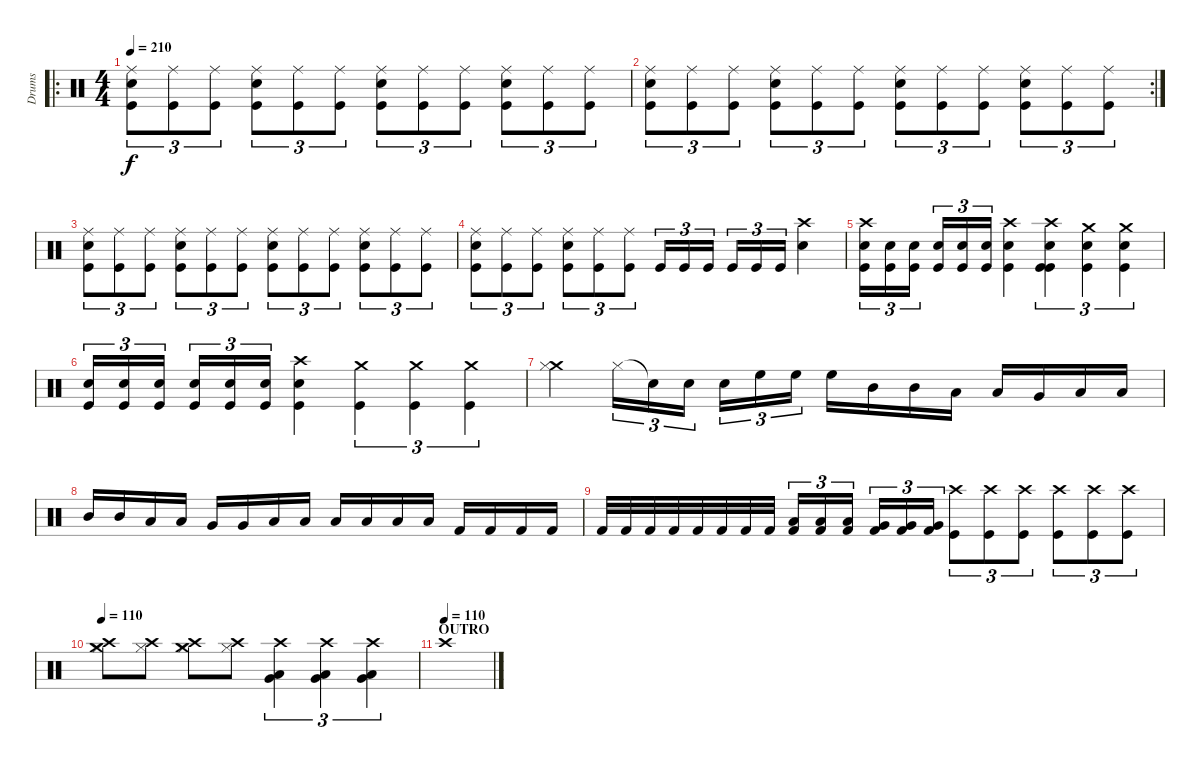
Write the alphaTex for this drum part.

\track ("Drums" "Drums") {instrument percussion}
\staff {score}
\articulation defaults
\ro
\ts (4 4)
\tempo 210
\clef neutral
\ks c
("Snare (hit) 2" "Ride (middle)" "Kick (hit)").8{tu (3 2) dy f} ("Ride (middle)" "Kick (hit)").8{tu (3 2)} ("Ride (middle)" "Kick (hit)").8{tu (3 2)} ("Snare (hit) 2" "Ride (middle)" "Kick (hit)").8{tu (3 2)} ("Ride (middle)" "Kick (hit)").8{tu (3 2)} ("Ride (middle)" "Kick (hit)").8{tu (3 2)} ("Snare (hit) 2" "Ride (middle)" "Kick (hit)").8{tu (3 2)} ("Ride (middle)" "Kick (hit)").8{tu (3 2)} ("Ride (middle)" "Kick (hit)").8{tu (3 2)} ("Snare (hit) 2" "Ride (middle)" "Kick (hit)").8{tu (3 2)} ("Ride (middle)" "Kick (hit)").8{tu (3 2)} ("Ride (middle)" "Kick (hit)").8{tu (3 2)} |
\rc 2
("Snare (hit) 2" "Ride (middle)" "Kick (hit)").8{tu (3 2)} ("Ride (middle)" "Kick (hit)").8{tu (3 2)} ("Ride (middle)" "Kick (hit)").8{tu (3 2)} ("Snare (hit) 2" "Ride (middle)" "Kick (hit)").8{tu (3 2)} ("Ride (middle)" "Kick (hit)").8{tu (3 2)} ("Ride (middle)" "Kick (hit)").8{tu (3 2)} ("Snare (hit) 2" "Ride (middle)" "Kick (hit)").8{tu (3 2)} ("Ride (middle)" "Kick (hit)").8{tu (3 2)} ("Ride (middle)" "Kick (hit)").8{tu (3 2)} ("Snare (hit) 2" "Ride (middle)" "Kick (hit)").8{tu (3 2)} ("Ride (middle)" "Kick (hit)").8{tu (3 2)} ("Ride (middle)" "Kick (hit)").8{tu (3 2)} |
("Snare (hit) 2" "Ride (middle)" "Kick (hit)").8{tu (3 2)} ("Ride (middle)" "Kick (hit)").8{tu (3 2)} ("Ride (middle)" "Kick (hit)").8{tu (3 2)} ("Snare (hit) 2" "Ride (middle)" "Kick (hit)").8{tu (3 2)} ("Ride (middle)" "Kick (hit)").8{tu (3 2)} ("Ride (middle)" "Kick (hit)").8{tu (3 2)} ("Snare (hit) 2" "Ride (middle)" "Kick (hit)").8{tu (3 2)} ("Ride (middle)" "Kick (hit)").8{tu (3 2)} ("Ride (middle)" "Kick (hit)").8{tu (3 2)} ("Snare (hit) 2" "Ride (middle)" "Kick (hit)").8{tu (3 2)} ("Ride (middle)" "Kick (hit)").8{tu (3 2)} ("Ride (middle)" "Kick (hit)").8{tu (3 2)} |
("Snare (hit) 2" "Ride (middle)" "Kick (hit)").8{tu (3 2)} ("Ride (middle)" "Kick (hit)").8{tu (3 2)} ("Ride (middle)" "Kick (hit)").8{tu (3 2)} ("Snare (hit) 2" "Ride (middle)" "Kick (hit)").8{tu (3 2)} ("Ride (middle)" "Kick (hit)").8{tu (3 2)} ("Ride (middle)" "Kick (hit)").8{tu (3 2)} "Kick (hit)".16{tu (3 2)} "Kick (hit)".16{tu (3 2)} "Kick (hit)".16{tu (3 2)} "Kick (hit)".16{tu (3 2)} "Kick (hit)".16{tu (3 2)} "Kick (hit)".16{tu (3 2)} ("Crash high (hit)" "Snare (hit) 2").4 |
("Crash high (hit)" "Snare (hit) 2" "Kick (hit)").16{tu (3 2)} ("Snare (hit) 2" "Kick (hit)").16{tu (3 2)} ("Snare (hit) 2" "Kick (hit)").16{tu (3 2)} ("Snare (hit) 2" "Kick (hit)").16{tu (3 2)} ("Snare (hit) 2" "Kick (hit)").16{tu (3 2)} ("Snare (hit) 2" "Kick (hit)").16{tu (3 2)} ("Crash high (hit)" "Snare (hit) 2" "Kick (hit)").4 ("Crash high (hit)" "Kick (hit)" "Snare (hit) 2" "Kick (hit)").4{tu (3 2)} ("Crash medium (hit)" "Kick (hit)" "Snare (hit) 2").4{tu (3 2)} ("Crash medium (hit)" "Kick (hit)" "Snare (hit) 2").4{tu (3 2)} |
("Kick (hit)" "Snare (hit) 2").16{tu (3 2)} ("Kick (hit)" "Snare (hit) 2").16{tu (3 2)} ("Kick (hit)" "Snare (hit) 2").16{tu (3 2)} ("Kick (hit)" "Snare (hit) 2").16{tu (3 2)} ("Kick (hit)" "Snare (hit) 2").16{tu (3 2)} ("Kick (hit)" "Snare (hit) 2").16{tu (3 2)} ("Crash high (hit)" "Kick (hit)" "Snare (hit) 2").4 ("Crash medium (hit)" "Kick (hit)").4{tu (3 2)} ("Crash medium (hit)" "Kick (hit)").4{tu (3 2)} ("Crash medium (hit)" "Kick (hit)").4{tu (3 2)} |
("Crash medium (hit)" "Hi-Hat (closed)").4 "Hi-Hat (closed)".16{tu (3 2)} "Snare (hit)"{t}.16{tu (3 2)} "Snare (hit) 2".16{tu (3 2)} "Snare (hit) 2".16{tu (3 2)} "High Floor Tom (hit)".16{tu (3 2)} "High Floor Tom (hit)".16{tu (3 2)} "High Floor Tom (hit)".16 "Mid Tom (hit)".16 "Mid Tom (hit)".16 "Low Tom (hit)".16 "Low Tom (hit)".16 "Very Low Tom (hit)".16 "Low Tom (hit)".16 "Low Tom (hit)".16 |
"Mid Tom (hit)".16 "Mid Tom (hit)".16 "Low Tom (hit)".16 "Low Tom (hit)".16 "Very Low Tom (hit)".16 "Very Low Tom (hit)".16 "Low Floor Tom (hit)".16 "Low Floor Tom (hit)".16 "Low Floor Tom (hit)".16 "Low Floor Tom (hit)".16 "Low Floor Tom (hit)".16 "Low Floor Tom (hit)".16 "Kick (hit) 2".16 "Kick (hit) 2".16 "Kick (hit) 2".16 "Kick (hit) 2".16 |
"Kick (hit) 2".32 "Kick (hit) 2".32 "Kick (hit) 2".32 "Kick (hit) 2".32 "Kick (hit) 2".32 "Kick (hit) 2".32 "Kick (hit) 2".32 "Kick (hit) 2".32 ("Low Tom (hit)" "Kick (hit) 2").16{tu (3 2)} ("Low Tom (hit)" "Kick (hit) 2").16{tu (3 2)} ("Low Tom (hit)" "Kick (hit) 2").16{tu (3 2)} ("Very Low Tom (hit)" "Kick (hit) 2").16{tu (3 2)} ("Very Low Tom (hit)" "Kick (hit) 2").16{tu (3 2)} ("Very Low Tom (hit)" "Kick (hit) 2").16{tu (3 2)} ("Crash high (hit)" "Kick (hit)").8{tu (3 2)} ("Crash high (hit)" "Kick (hit)").8{tu (3 2)} ("Crash high (hit)" "Kick (hit)").8{tu (3 2)} ("Crash high (hit)" "Kick (hit)").8{tu (3 2)} ("Crash high (hit)" "Kick (hit)").8{tu (3 2)} ("Crash high (hit)" "Kick (hit)").8{tu (3 2)} |
\tempo 110
("Crash medium (hit)" "Crash high (hit)" "Hi-Hat (closed)").8 ("Crash high (hit)" "Hi-Hat (closed)").8 ("Crash medium (hit)" "Crash high (hit)" "Hi-Hat (closed)").8 ("Crash high (hit)" "Hi-Hat (closed)").8 ("Crash high (hit)" "Very Low Tom (hit)" "Low Floor Tom (hit)").4{tu (3 2)} ("Crash high (hit)" "Very Low Tom (hit)" "Low Floor Tom (hit)").4{tu (3 2)} ("Crash high (hit)" "Very Low Tom (hit)" "Low Floor Tom (hit)").4{tu (3 2)} |
\section ("" "OUTRO")
\tempo (110)
"Crash high (hit)".1
